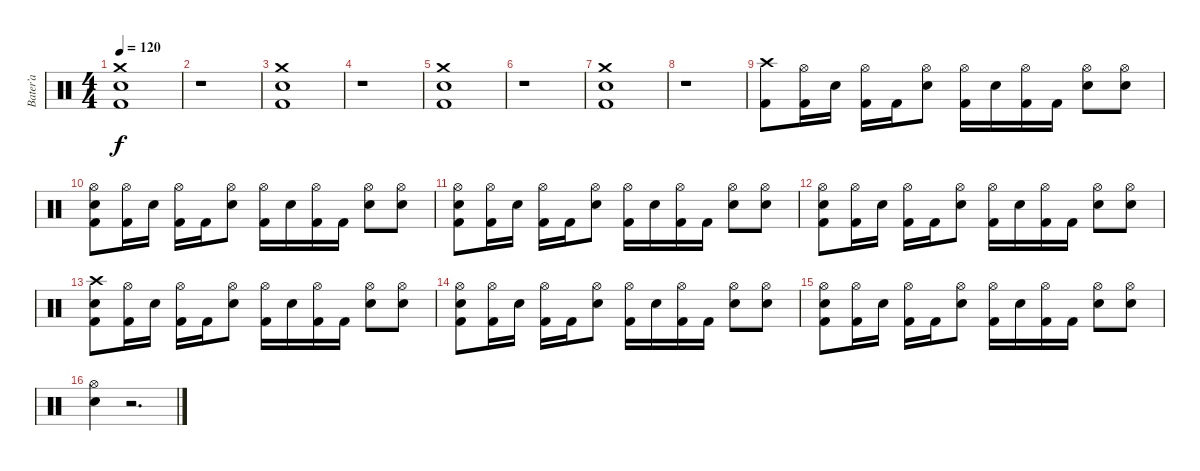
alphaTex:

\track ("Bater’a" "Bater’a") {instrument percussion}
\staff {score}
\articulation defaults
\ts (4 4)
\tempo 120
\clef neutral
\ks c
("Crash medium (hit)" "Electric Snare (hit)" "Kick (hit) 2").1{dy f} |
r.1 |
("Crash medium (hit)" "Electric Snare (hit)" "Kick (hit) 2").1 |
r.1 |
("Crash medium (hit)" "Electric Snare (hit)" "Kick (hit) 2").1 |
r.1 |
("Crash medium (hit)" "Electric Snare (hit)" "Kick (hit) 2").1 |
r.1 |
("Crash high (hit)" "Kick (hit) 2").8 ("Hi-Hat (open)" "Kick (hit) 2").16 "Electric Snare (hit)".16 ("Hi-Hat (open)" "Kick (hit) 2").16 "Kick (hit) 2".16 ("Hi-Hat (open)" "Electric Snare (hit)").8 ("Hi-Hat (open)" "Kick (hit) 2").16 "Electric Snare (hit)".16 ("Hi-Hat (open)" "Kick (hit) 2").16 "Kick (hit) 2".16 ("Hi-Hat (open)" "Electric Snare (hit)").8 ("Hi-Hat (open)" "Electric Snare (hit)").8 |
("Hi-Hat (open)" "Electric Snare (hit)" "Kick (hit) 2").8 ("Hi-Hat (open)" "Kick (hit) 2").16 "Electric Snare (hit)".16 ("Hi-Hat (open)" "Kick (hit) 2").16 "Kick (hit) 2".16 ("Hi-Hat (open)" "Electric Snare (hit)").8 ("Hi-Hat (open)" "Kick (hit) 2").16 "Electric Snare (hit)".16 ("Hi-Hat (open)" "Kick (hit) 2").16 "Kick (hit) 2".16 ("Hi-Hat (open)" "Electric Snare (hit)").8 ("Hi-Hat (open)" "Electric Snare (hit)").8 |
("Hi-Hat (open)" "Electric Snare (hit)" "Kick (hit) 2").8 ("Hi-Hat (open)" "Kick (hit) 2").16 "Electric Snare (hit)".16 ("Hi-Hat (open)" "Kick (hit) 2").16 "Kick (hit) 2".16 ("Hi-Hat (open)" "Electric Snare (hit)").8 ("Hi-Hat (open)" "Kick (hit) 2").16 "Electric Snare (hit)".16 ("Hi-Hat (open)" "Kick (hit) 2").16 "Kick (hit) 2".16 ("Hi-Hat (open)" "Electric Snare (hit)").8 ("Hi-Hat (open)" "Electric Snare (hit)").8 |
("Hi-Hat (open)" "Electric Snare (hit)" "Kick (hit) 2").8 ("Hi-Hat (open)" "Kick (hit) 2").16 "Electric Snare (hit)".16 ("Hi-Hat (open)" "Kick (hit) 2").16 "Kick (hit) 2".16 ("Hi-Hat (open)" "Electric Snare (hit)").8 ("Hi-Hat (open)" "Kick (hit) 2").16 "Electric Snare (hit)".16 ("Hi-Hat (open)" "Kick (hit) 2").16 "Kick (hit) 2".16 ("Hi-Hat (open)" "Electric Snare (hit)").8 ("Hi-Hat (open)" "Electric Snare (hit)").8 |
("Crash high (hit)" "Electric Snare (hit)" "Kick (hit) 2").8 ("Hi-Hat (open)" "Kick (hit) 2").16 "Electric Snare (hit)".16 ("Hi-Hat (open)" "Kick (hit) 2").16 "Kick (hit) 2".16 ("Hi-Hat (open)" "Electric Snare (hit)").8 ("Hi-Hat (open)" "Kick (hit) 2").16 "Electric Snare (hit)".16 ("Hi-Hat (open)" "Kick (hit) 2").16 "Kick (hit) 2".16 ("Hi-Hat (open)" "Electric Snare (hit)").8 ("Hi-Hat (open)" "Electric Snare (hit)").8 |
("Hi-Hat (open)" "Electric Snare (hit)" "Kick (hit) 2").8 ("Hi-Hat (open)" "Kick (hit) 2").16 "Electric Snare (hit)".16 ("Hi-Hat (open)" "Kick (hit) 2").16 "Kick (hit) 2".16 ("Hi-Hat (open)" "Electric Snare (hit)").8 ("Hi-Hat (open)" "Kick (hit) 2").16 "Electric Snare (hit)".16 ("Hi-Hat (open)" "Kick (hit) 2").16 "Kick (hit) 2".16 ("Hi-Hat (open)" "Electric Snare (hit)").8 ("Hi-Hat (open)" "Electric Snare (hit)").8 |
("Hi-Hat (open)" "Electric Snare (hit)" "Kick (hit) 2").8 ("Hi-Hat (open)" "Kick (hit) 2").16 "Electric Snare (hit)".16 ("Hi-Hat (open)" "Kick (hit) 2").16 "Kick (hit) 2".16 ("Hi-Hat (open)" "Electric Snare (hit)").8 ("Hi-Hat (open)" "Kick (hit) 2").16 "Electric Snare (hit)".16 ("Hi-Hat (open)" "Kick (hit) 2").16 "Kick (hit) 2".16 ("Hi-Hat (open)" "Electric Snare (hit)").8 ("Hi-Hat (open)" "Electric Snare (hit)").8 |
("Hi-Hat (open)" "Electric Snare (hit)").4 r.2{d}
